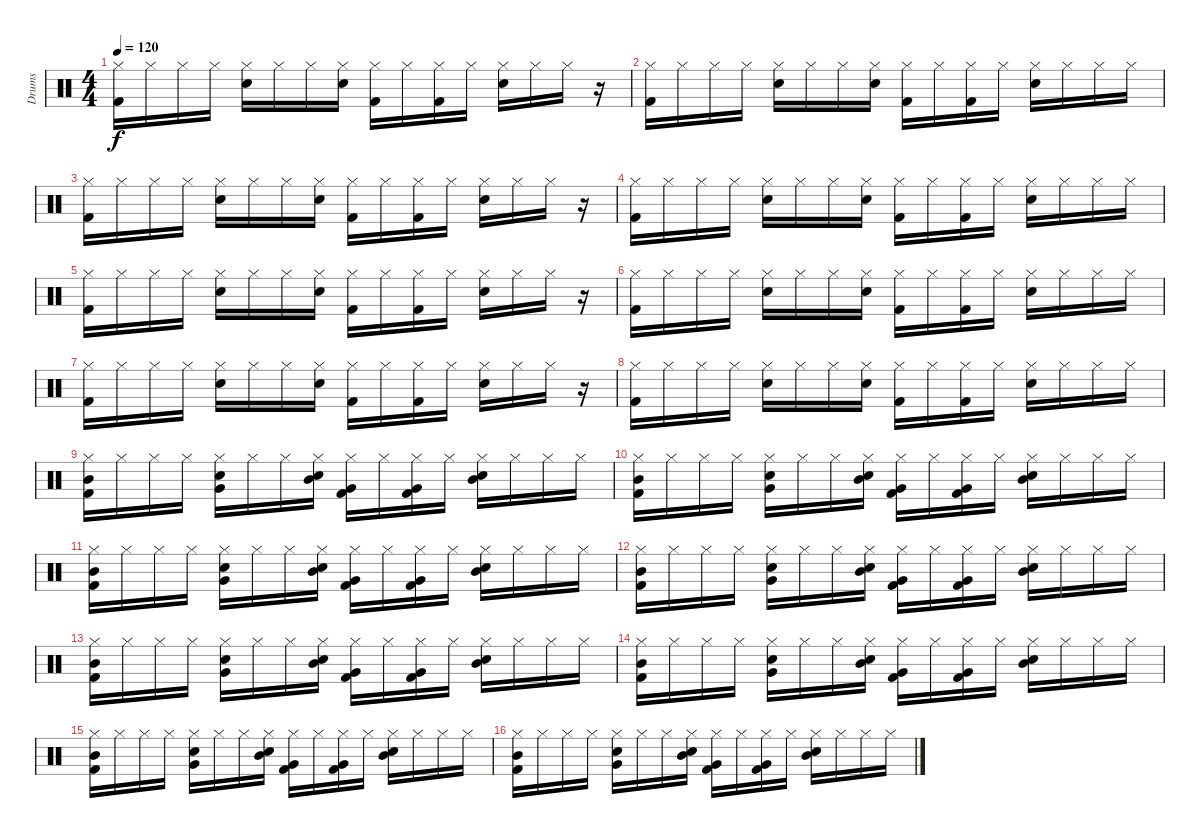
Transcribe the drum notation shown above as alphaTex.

\track ("Drums" "Drums") {instrument percussion}
\staff {score}
\articulation defaults
\ts (4 4)
\tempo 120
\clef neutral
\ks c
("Hi-Hat (closed)" "Kick (hit) 2").16{dy f} "Hi-Hat (closed)".16 "Hi-Hat (closed)".16 "Hi-Hat (closed)".16 ("Hi-Hat (closed)" "Snare (hit) 2").16 "Hi-Hat (closed)".16 "Hi-Hat (closed)".16 ("Hi-Hat (closed)" "Snare (hit) 2").16 ("Hi-Hat (closed)" "Kick (hit) 2").16 "Hi-Hat (closed)".16 ("Hi-Hat (closed)" "Kick (hit) 2").16 "Hi-Hat (closed)".16 ("Hi-Hat (closed)" "Snare (hit) 2").16 "Hi-Hat (closed)".16 "Hi-Hat (closed)".16 r.16 |
("Hi-Hat (closed)" "Kick (hit) 2").16 "Hi-Hat (closed)".16 "Hi-Hat (closed)".16 "Hi-Hat (closed)".16 ("Hi-Hat (closed)" "Snare (hit) 2").16 "Hi-Hat (closed)".16 "Hi-Hat (closed)".16 ("Hi-Hat (closed)" "Snare (hit) 2").16 ("Hi-Hat (closed)" "Kick (hit) 2").16 "Hi-Hat (closed)".16 ("Hi-Hat (closed)" "Kick (hit) 2").16 "Hi-Hat (closed)".16 ("Hi-Hat (closed)" "Snare (hit) 2").16 "Hi-Hat (closed)".16 "Hi-Hat (closed)".16 "Hi-Hat (closed)".16 |
("Hi-Hat (closed)" "Kick (hit) 2").16 "Hi-Hat (closed)".16 "Hi-Hat (closed)".16 "Hi-Hat (closed)".16 ("Hi-Hat (closed)" "Snare (hit) 2").16 "Hi-Hat (closed)".16 "Hi-Hat (closed)".16 ("Hi-Hat (closed)" "Snare (hit) 2").16 ("Hi-Hat (closed)" "Kick (hit) 2").16 "Hi-Hat (closed)".16 ("Hi-Hat (closed)" "Kick (hit) 2").16 "Hi-Hat (closed)".16 ("Hi-Hat (closed)" "Snare (hit) 2").16 "Hi-Hat (closed)".16 "Hi-Hat (closed)".16 r.16 |
("Hi-Hat (closed)" "Kick (hit) 2").16 "Hi-Hat (closed)".16 "Hi-Hat (closed)".16 "Hi-Hat (closed)".16 ("Hi-Hat (closed)" "Snare (hit) 2").16 "Hi-Hat (closed)".16 "Hi-Hat (closed)".16 ("Hi-Hat (closed)" "Snare (hit) 2").16 ("Hi-Hat (closed)" "Kick (hit) 2").16 "Hi-Hat (closed)".16 ("Hi-Hat (closed)" "Kick (hit) 2").16 "Hi-Hat (closed)".16 ("Hi-Hat (closed)" "Snare (hit) 2").16 "Hi-Hat (closed)".16 "Hi-Hat (closed)".16 "Hi-Hat (closed)".16 |
("Hi-Hat (closed)" "Kick (hit) 2").16 "Hi-Hat (closed)".16 "Hi-Hat (closed)".16 "Hi-Hat (closed)".16 ("Hi-Hat (closed)" "Snare (hit) 2").16 "Hi-Hat (closed)".16 "Hi-Hat (closed)".16 ("Hi-Hat (closed)" "Snare (hit) 2").16 ("Hi-Hat (closed)" "Kick (hit) 2").16 "Hi-Hat (closed)".16 ("Hi-Hat (closed)" "Kick (hit) 2").16 "Hi-Hat (closed)".16 ("Hi-Hat (closed)" "Snare (hit) 2").16 "Hi-Hat (closed)".16 "Hi-Hat (closed)".16 r.16 |
("Hi-Hat (closed)" "Kick (hit) 2").16 "Hi-Hat (closed)".16 "Hi-Hat (closed)".16 "Hi-Hat (closed)".16 ("Hi-Hat (closed)" "Snare (hit) 2").16 "Hi-Hat (closed)".16 "Hi-Hat (closed)".16 ("Hi-Hat (closed)" "Snare (hit) 2").16 ("Hi-Hat (closed)" "Kick (hit) 2").16 "Hi-Hat (closed)".16 ("Hi-Hat (closed)" "Kick (hit) 2").16 "Hi-Hat (closed)".16 ("Hi-Hat (closed)" "Snare (hit) 2").16 "Hi-Hat (closed)".16 "Hi-Hat (closed)".16 "Hi-Hat (closed)".16 |
("Hi-Hat (closed)" "Kick (hit) 2").16 "Hi-Hat (closed)".16 "Hi-Hat (closed)".16 "Hi-Hat (closed)".16 ("Hi-Hat (closed)" "Snare (hit) 2").16 "Hi-Hat (closed)".16 "Hi-Hat (closed)".16 ("Hi-Hat (closed)" "Snare (hit) 2").16 ("Hi-Hat (closed)" "Kick (hit) 2").16 "Hi-Hat (closed)".16 ("Hi-Hat (closed)" "Kick (hit) 2").16 "Hi-Hat (closed)".16 ("Hi-Hat (closed)" "Snare (hit) 2").16 "Hi-Hat (closed)".16 "Hi-Hat (closed)".16 r.16 |
("Hi-Hat (closed)" "Kick (hit) 2").16 "Hi-Hat (closed)".16 "Hi-Hat (closed)".16 "Hi-Hat (closed)".16 ("Hi-Hat (closed)" "Snare (hit) 2").16 "Hi-Hat (closed)".16 "Hi-Hat (closed)".16 ("Hi-Hat (closed)" "Snare (hit) 2").16 ("Hi-Hat (closed)" "Kick (hit) 2").16 "Hi-Hat (closed)".16 ("Hi-Hat (closed)" "Kick (hit) 2").16 "Hi-Hat (closed)".16 ("Hi-Hat (closed)" "Snare (hit) 2").16 "Hi-Hat (closed)".16 "Hi-Hat (closed)".16 "Hi-Hat (closed)".16 |
("Hi-Hat (closed)" "Kick (hit) 2" "Mid Tom (hit)").16 "Hi-Hat (closed)".16 "Hi-Hat (closed)".16 "Hi-Hat (closed)".16 ("Hi-Hat (closed)" "Snare (hit) 2" "Very Low Tom (hit)").16 "Hi-Hat (closed)".16 "Hi-Hat (closed)".16 ("Hi-Hat (closed)" "Snare (hit) 2" "Mid Tom (hit)").16 ("Hi-Hat (closed)" "Kick (hit) 2" "Very Low Tom (hit)").16 "Hi-Hat (closed)".16 ("Hi-Hat (closed)" "Kick (hit) 2" "Very Low Tom (hit)").16 "Hi-Hat (closed)".16 ("Hi-Hat (closed)" "Snare (hit) 2" "Mid Tom (hit)").16 "Hi-Hat (closed)".16 "Hi-Hat (closed)".16 "Hi-Hat (closed)".16 |
("Hi-Hat (closed)" "Kick (hit) 2" "Mid Tom (hit)").16 "Hi-Hat (closed)".16 "Hi-Hat (closed)".16 "Hi-Hat (closed)".16 ("Hi-Hat (closed)" "Snare (hit) 2" "Very Low Tom (hit)").16 "Hi-Hat (closed)".16 "Hi-Hat (closed)".16 ("Hi-Hat (closed)" "Snare (hit) 2" "Mid Tom (hit)").16 ("Hi-Hat (closed)" "Kick (hit) 2" "Very Low Tom (hit)").16 "Hi-Hat (closed)".16 ("Hi-Hat (closed)" "Kick (hit) 2" "Very Low Tom (hit)").16 "Hi-Hat (closed)".16 ("Hi-Hat (closed)" "Snare (hit) 2" "Mid Tom (hit)").16 "Hi-Hat (closed)".16 "Hi-Hat (closed)".16 "Hi-Hat (closed)".16 |
("Hi-Hat (closed)" "Kick (hit) 2" "Mid Tom (hit)").16 "Hi-Hat (closed)".16 "Hi-Hat (closed)".16 "Hi-Hat (closed)".16 ("Hi-Hat (closed)" "Snare (hit) 2" "Very Low Tom (hit)").16 "Hi-Hat (closed)".16 "Hi-Hat (closed)".16 ("Hi-Hat (closed)" "Snare (hit) 2" "Mid Tom (hit)").16 ("Hi-Hat (closed)" "Kick (hit) 2" "Very Low Tom (hit)").16 "Hi-Hat (closed)".16 ("Hi-Hat (closed)" "Kick (hit) 2" "Very Low Tom (hit)").16 "Hi-Hat (closed)".16 ("Hi-Hat (closed)" "Snare (hit) 2" "Mid Tom (hit)").16 "Hi-Hat (closed)".16 "Hi-Hat (closed)".16 "Hi-Hat (closed)".16 |
("Hi-Hat (closed)" "Kick (hit) 2" "Mid Tom (hit)").16 "Hi-Hat (closed)".16 "Hi-Hat (closed)".16 "Hi-Hat (closed)".16 ("Hi-Hat (closed)" "Snare (hit) 2" "Very Low Tom (hit)").16 "Hi-Hat (closed)".16 "Hi-Hat (closed)".16 ("Hi-Hat (closed)" "Snare (hit) 2" "Mid Tom (hit)").16 ("Hi-Hat (closed)" "Kick (hit) 2" "Very Low Tom (hit)").16 "Hi-Hat (closed)".16 ("Hi-Hat (closed)" "Kick (hit) 2" "Very Low Tom (hit)").16 "Hi-Hat (closed)".16 ("Hi-Hat (closed)" "Snare (hit) 2" "Mid Tom (hit)").16 "Hi-Hat (closed)".16 "Hi-Hat (closed)".16 "Hi-Hat (closed)".16 |
("Hi-Hat (closed)" "Kick (hit) 2" "Mid Tom (hit)").16 "Hi-Hat (closed)".16 "Hi-Hat (closed)".16 "Hi-Hat (closed)".16 ("Hi-Hat (closed)" "Snare (hit) 2" "Very Low Tom (hit)").16 "Hi-Hat (closed)".16 "Hi-Hat (closed)".16 ("Hi-Hat (closed)" "Snare (hit) 2" "Mid Tom (hit)").16 ("Hi-Hat (closed)" "Kick (hit) 2" "Very Low Tom (hit)").16 "Hi-Hat (closed)".16 ("Hi-Hat (closed)" "Kick (hit) 2" "Very Low Tom (hit)").16 "Hi-Hat (closed)".16 ("Hi-Hat (closed)" "Snare (hit) 2" "Mid Tom (hit)").16 "Hi-Hat (closed)".16 "Hi-Hat (closed)".16 "Hi-Hat (closed)".16 |
("Hi-Hat (closed)" "Kick (hit) 2" "Mid Tom (hit)").16 "Hi-Hat (closed)".16 "Hi-Hat (closed)".16 "Hi-Hat (closed)".16 ("Hi-Hat (closed)" "Snare (hit) 2" "Very Low Tom (hit)").16 "Hi-Hat (closed)".16 "Hi-Hat (closed)".16 ("Hi-Hat (closed)" "Snare (hit) 2" "Mid Tom (hit)").16 ("Hi-Hat (closed)" "Kick (hit) 2" "Very Low Tom (hit)").16 "Hi-Hat (closed)".16 ("Hi-Hat (closed)" "Kick (hit) 2" "Very Low Tom (hit)").16 "Hi-Hat (closed)".16 ("Hi-Hat (closed)" "Snare (hit) 2" "Mid Tom (hit)").16 "Hi-Hat (closed)".16 "Hi-Hat (closed)".16 "Hi-Hat (closed)".16 |
("Hi-Hat (closed)" "Kick (hit) 2" "Mid Tom (hit)").16 "Hi-Hat (closed)".16 "Hi-Hat (closed)".16 "Hi-Hat (closed)".16 ("Hi-Hat (closed)" "Snare (hit) 2" "Very Low Tom (hit)").16 "Hi-Hat (closed)".16 "Hi-Hat (closed)".16 ("Hi-Hat (closed)" "Snare (hit) 2" "Mid Tom (hit)").16 ("Hi-Hat (closed)" "Kick (hit) 2" "Very Low Tom (hit)").16 "Hi-Hat (closed)".16 ("Hi-Hat (closed)" "Kick (hit) 2" "Very Low Tom (hit)").16 "Hi-Hat (closed)".16 ("Hi-Hat (closed)" "Snare (hit) 2" "Mid Tom (hit)").16 "Hi-Hat (closed)".16 "Hi-Hat (closed)".16 "Hi-Hat (closed)".16 |
("Hi-Hat (closed)" "Kick (hit) 2" "Mid Tom (hit)").16 "Hi-Hat (closed)".16 "Hi-Hat (closed)".16 "Hi-Hat (closed)".16 ("Hi-Hat (closed)" "Snare (hit) 2" "Very Low Tom (hit)").16 "Hi-Hat (closed)".16 "Hi-Hat (closed)".16 ("Hi-Hat (closed)" "Snare (hit) 2" "Mid Tom (hit)").16 ("Hi-Hat (closed)" "Kick (hit) 2" "Very Low Tom (hit)").16 "Hi-Hat (closed)".16 ("Hi-Hat (closed)" "Kick (hit) 2" "Very Low Tom (hit)").16 "Hi-Hat (closed)".16 ("Hi-Hat (closed)" "Snare (hit) 2" "Mid Tom (hit)").16 "Hi-Hat (closed)".16 "Hi-Hat (closed)".16 "Hi-Hat (closed)".16
